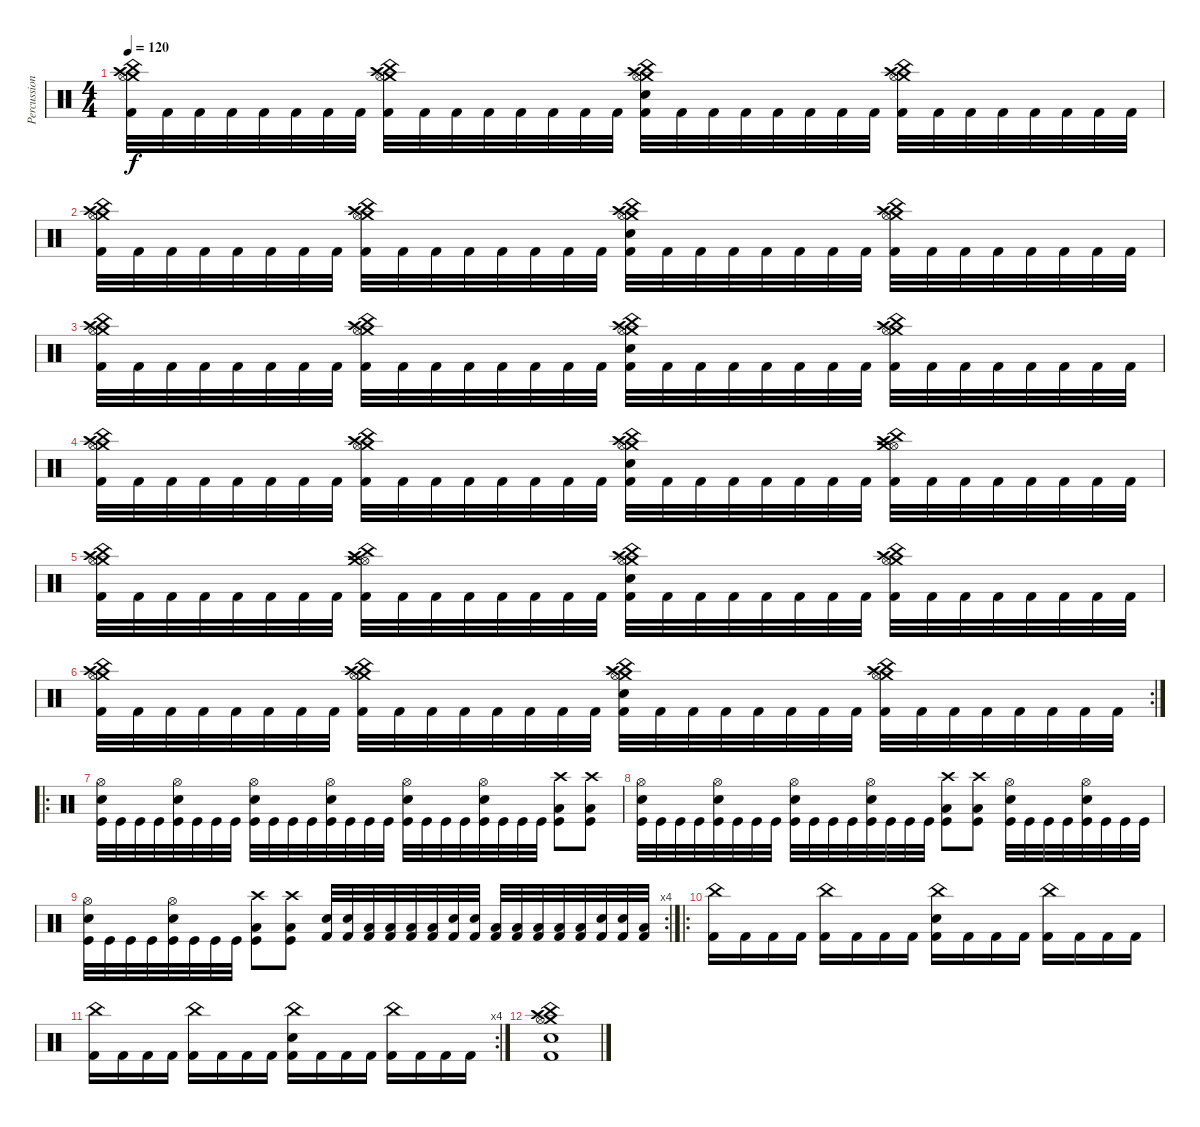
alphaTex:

\track ("Percussions" "Percussion") {instrument percussion}
\staff {score}
\articulation defaults
\ts (4 4)
\tempo 120
\clef neutral
\ks c
("Crash medium (hit)" "China (hit)" "Crash high (hit)" "Hi-Hat (open)" "Kick (hit) 2").32{dy f} "Kick (hit) 2".32 "Kick (hit) 2".32 "Kick (hit) 2".32 "Kick (hit) 2".32 "Kick (hit) 2".32 "Kick (hit) 2".32 "Kick (hit) 2".32 ("Crash medium (hit)" "China (hit)" "Crash high (hit)" "Hi-Hat (open)" "Kick (hit) 2").32 "Kick (hit) 2".32 "Kick (hit) 2".32 "Kick (hit) 2".32 "Kick (hit) 2".32 "Kick (hit) 2".32 "Kick (hit) 2".32 "Kick (hit) 2".32 ("Crash medium (hit)" "China (hit)" "Crash high (hit)" "Hi-Hat (open)" "Electric Snare (hit)" "Kick (hit) 2").32 "Kick (hit) 2".32 "Kick (hit) 2".32 "Kick (hit) 2".32 "Kick (hit) 2".32 "Kick (hit) 2".32 "Kick (hit) 2".32 "Kick (hit) 2".32 ("Crash medium (hit)" "China (hit)" "Hi-Hat (open)" "Crash high (hit)" "Kick (hit) 2").32 "Kick (hit) 2".32 "Kick (hit) 2".32 "Kick (hit) 2".32 "Kick (hit) 2".32 "Kick (hit) 2".32 "Kick (hit) 2".32 "Kick (hit) 2".32 |
("Crash medium (hit)" "China (hit)" "Crash high (hit)" "Hi-Hat (open)" "Kick (hit) 2").32 "Kick (hit) 2".32 "Kick (hit) 2".32 "Kick (hit) 2".32 "Kick (hit) 2".32 "Kick (hit) 2".32 "Kick (hit) 2".32 "Kick (hit) 2".32 ("China (hit)" "Crash medium (hit)" "Crash high (hit)" "Hi-Hat (open)" "Kick (hit) 2").32 "Kick (hit) 2".32 "Kick (hit) 2".32 "Kick (hit) 2".32 "Kick (hit) 2".32 "Kick (hit) 2".32 "Kick (hit) 2".32 "Kick (hit) 2".32 ("China (hit)" "Crash medium (hit)" "Crash high (hit)" "Hi-Hat (open)" "Electric Snare (hit)" "Kick (hit) 2").32 "Kick (hit) 2".32 "Kick (hit) 2".32 "Kick (hit) 2".32 "Kick (hit) 2".32 "Kick (hit) 2".32 "Kick (hit) 2".32 "Kick (hit) 2".32 ("China (hit)" "Crash medium (hit)" "Crash high (hit)" "Hi-Hat (open)" "Kick (hit) 2").32 "Kick (hit) 2".32 "Kick (hit) 2".32 "Kick (hit) 2".32 "Kick (hit) 2".32 "Kick (hit) 2".32 "Kick (hit) 2".32 "Kick (hit) 2".32 |
("Crash medium (hit)" "China (hit)" "Crash high (hit)" "Hi-Hat (open)" "Kick (hit) 2").32 "Kick (hit) 2".32 "Kick (hit) 2".32 "Kick (hit) 2".32 "Kick (hit) 2".32 "Kick (hit) 2".32 "Kick (hit) 2".32 "Kick (hit) 2".32 ("Crash medium (hit)" "Crash high (hit)" "China (hit)" "Hi-Hat (open)" "Kick (hit) 2").32 "Kick (hit) 2".32 "Kick (hit) 2".32 "Kick (hit) 2".32 "Kick (hit) 2".32 "Kick (hit) 2".32 "Kick (hit) 2".32 "Kick (hit) 2".32 ("Crash medium (hit)" "Crash high (hit)" "China (hit)" "Hi-Hat (open)" "Electric Snare (hit)" "Kick (hit) 2").32 "Kick (hit) 2".32 "Kick (hit) 2".32 "Kick (hit) 2".32 "Kick (hit) 2".32 "Kick (hit) 2".32 "Kick (hit) 2".32 "Kick (hit) 2".32 ("China (hit)" "Crash medium (hit)" "Crash high (hit)" "Hi-Hat (open)" "Kick (hit) 2").32 "Kick (hit) 2".32 "Kick (hit) 2".32 "Kick (hit) 2".32 "Kick (hit) 2".32 "Kick (hit) 2".32 "Kick (hit) 2".32 "Kick (hit) 2".32 |
("China (hit)" "Crash medium (hit)" "Hi-Hat (open)" "Crash high (hit)" "Kick (hit) 2").32 "Kick (hit) 2".32 "Kick (hit) 2".32 "Kick (hit) 2".32 "Kick (hit) 2".32 "Kick (hit) 2".32 "Kick (hit) 2".32 "Kick (hit) 2".32 ("Crash medium (hit)" "Crash high (hit)" "Hi-Hat (open)" "China (hit)" "Kick (hit) 2").32 "Kick (hit) 2".32 "Kick (hit) 2".32 "Kick (hit) 2".32 "Kick (hit) 2".32 "Kick (hit) 2".32 "Kick (hit) 2".32 "Kick (hit) 2".32 ("China (hit)" "Crash medium (hit)" "Crash high (hit)" "Hi-Hat (open)" "Electric Snare (hit)" "Kick (hit) 2").32 "Kick (hit) 2".32 "Kick (hit) 2".32 "Kick (hit) 2".32 "Kick (hit) 2".32 "Kick (hit) 2".32 "Kick (hit) 2".32 "Kick (hit) 2".32 ("Hi-Hat (open)" "Crash medium (hit)" "China (hit)" "Crash high (hit)" "Kick (hit) 2").32 "Kick (hit) 2".32 "Kick (hit) 2".32 "Kick (hit) 2".32 "Kick (hit) 2".32 "Kick (hit) 2".32 "Kick (hit) 2".32 "Kick (hit) 2".32 |
("China (hit)" "Crash medium (hit)" "Crash high (hit)" "Hi-Hat (open)" "Kick (hit) 2").32 "Kick (hit) 2".32 "Kick (hit) 2".32 "Kick (hit) 2".32 "Kick (hit) 2".32 "Kick (hit) 2".32 "Kick (hit) 2".32 "Kick (hit) 2".32 ("Hi-Hat (open)" "Crash medium (hit)" "China (hit)" "Crash high (hit)" "Kick (hit) 2").32 "Kick (hit) 2".32 "Kick (hit) 2".32 "Kick (hit) 2".32 "Kick (hit) 2".32 "Kick (hit) 2".32 "Kick (hit) 2".32 "Kick (hit) 2".32 ("Crash high (hit)" "Crash medium (hit)" "China (hit)" "Hi-Hat (open)" "Electric Snare (hit)" "Kick (hit) 2").32 "Kick (hit) 2".32 "Kick (hit) 2".32 "Kick (hit) 2".32 "Kick (hit) 2".32 "Kick (hit) 2".32 "Kick (hit) 2".32 "Kick (hit) 2".32 ("Crash medium (hit)" "Crash high (hit)" "China (hit)" "Hi-Hat (open)" "Kick (hit) 2").32 "Kick (hit) 2".32 "Kick (hit) 2".32 "Kick (hit) 2".32 "Kick (hit) 2".32 "Kick (hit) 2".32 "Kick (hit) 2".32 "Kick (hit) 2".32 |
\rc 2
("Crash high (hit)" "Crash medium (hit)" "China (hit)" "Hi-Hat (open)" "Kick (hit) 2").32 "Kick (hit) 2".32 "Kick (hit) 2".32 "Kick (hit) 2".32 "Kick (hit) 2".32 "Kick (hit) 2".32 "Kick (hit) 2".32 "Kick (hit) 2".32 ("Crash medium (hit)" "Crash high (hit)" "China (hit)" "Hi-Hat (open)" "Kick (hit) 2").32 "Kick (hit) 2".32 "Kick (hit) 2".32 "Kick (hit) 2".32 "Kick (hit) 2".32 "Kick (hit) 2".32 "Kick (hit) 2".32 "Kick (hit) 2".32 ("Crash medium (hit)" "Crash high (hit)" "China (hit)" "Hi-Hat (open)" "Electric Snare (hit)" "Kick (hit) 2").32 "Kick (hit) 2".32 "Kick (hit) 2".32 "Kick (hit) 2".32 "Kick (hit) 2".32 "Kick (hit) 2".32 "Kick (hit) 2".32 "Kick (hit) 2".32 ("Crash medium (hit)" "Crash high (hit)" "China (hit)" "Hi-Hat (open)" "Kick (hit) 2").32 "Kick (hit) 2".32 "Kick (hit) 2".32 "Kick (hit) 2".32 "Kick (hit) 2".32 "Kick (hit) 2".32 "Kick (hit) 2".32 "Kick (hit) 2".32 |
\ro
("Hi-Hat (open)" "Electric Snare (hit)" "Kick (hit)").32 "Kick (hit)".32 "Kick (hit)".32 "Kick (hit)".32 ("Hi-Hat (open)" "Electric Snare (hit)" "Kick (hit)").32 "Kick (hit)".32 "Kick (hit)".32 "Kick (hit)".32 ("Hi-Hat (open)" "Electric Snare (hit)" "Kick (hit)").32 "Kick (hit)".32 "Kick (hit)".32 "Kick (hit)".32 ("Hi-Hat (open)" "Electric Snare (hit)" "Kick (hit)").32 "Kick (hit)".32 "Kick (hit)".32 "Kick (hit)".32 ("Hi-Hat (open)" "Electric Snare (hit)" "Kick (hit)").32 "Kick (hit)".32 "Kick (hit)".32 "Kick (hit)".32 ("Hi-Hat (open)" "Electric Snare (hit)" "Kick (hit)").32 "Kick (hit)".32 "Kick (hit)".32 "Kick (hit)".32 ("Crash high (hit)" "Low Floor Tom (hit)" "Kick (hit)").8 ("Crash high (hit)" "Low Floor Tom (hit)" "Kick (hit)").8 |
("Hi-Hat (open)" "Electric Snare (hit)" "Kick (hit)").32 "Kick (hit)".32 "Kick (hit)".32 "Kick (hit)".32 ("Hi-Hat (open)" "Electric Snare (hit)" "Kick (hit)").32 "Kick (hit)".32 "Kick (hit)".32 "Kick (hit)".32 ("Hi-Hat (open)" "Electric Snare (hit)" "Kick (hit)").32 "Kick (hit)".32 "Kick (hit)".32 "Kick (hit)".32 ("Hi-Hat (open)" "Electric Snare (hit)" "Kick (hit)").32 "Kick (hit)".32 "Kick (hit)".32 "Kick (hit)".32 ("Crash high (hit)" "Low Floor Tom (hit)" "Kick (hit)").8 ("Crash high (hit)" "Low Floor Tom (hit)" "Kick (hit)").8 ("Hi-Hat (open)" "Electric Snare (hit)" "Kick (hit)").32 "Kick (hit)".32 "Kick (hit)".32 "Kick (hit)".32 ("Hi-Hat (open)" "Electric Snare (hit)" "Kick (hit)").32 "Kick (hit)".32 "Kick (hit)".32 "Kick (hit)".32 |
\rc 4
("Hi-Hat (open)" "Electric Snare (hit)" "Kick (hit)").32 "Kick (hit)".32 "Kick (hit)".32 "Kick (hit)".32 ("Hi-Hat (open)" "Electric Snare (hit)" "Kick (hit)").32 "Kick (hit)".32 "Kick (hit)".32 "Kick (hit)".32 ("Crash high (hit)" "Low Floor Tom (hit)" "Kick (hit)").8 ("Crash high (hit)" "Low Floor Tom (hit)" "Kick (hit)").8 ("Electric Snare (hit)" "Kick (hit) 2").32 ("Electric Snare (hit)" "Kick (hit) 2").32 ("Low Floor Tom (hit)" "Kick (hit) 2").32 ("Low Tom (hit)" "Kick (hit) 2").32 ("Low Tom (hit)" "Kick (hit) 2").32 ("Low Tom (hit)" "Kick (hit) 2").32 ("Electric Snare (hit)" "Kick (hit) 2").32 ("Electric Snare (hit)" "Kick (hit) 2").32 ("Low Floor Tom (hit)" "Kick (hit) 2").32 ("Low Tom (hit)" "Kick (hit) 2").32 ("Low Tom (hit)" "Kick (hit) 2").32 ("Low Tom (hit)" "Kick (hit) 2").32 ("Low Tom (hit)" "Kick (hit) 2").32 ("Electric Snare (hit)" "Kick (hit) 2").32 ("Electric Snare (hit)" "Kick (hit) 2").32 ("Low Floor Tom (hit)" "Kick (hit) 2").32 |
\ro
("China (hit)" "Kick (hit) 2").16 "Kick (hit) 2".16 "Kick (hit) 2".16 "Kick (hit) 2".16 ("China (hit)" "Kick (hit) 2").16 "Kick (hit) 2".16 "Kick (hit) 2".16 "Kick (hit) 2".16 ("China (hit)" "Electric Snare (hit)" "Kick (hit) 2").16 "Kick (hit) 2".16 "Kick (hit) 2".16 "Kick (hit) 2".16 ("China (hit)" "Kick (hit) 2").16 "Kick (hit) 2".16 "Kick (hit) 2".16 "Kick (hit) 2".16 |
\rc 4
("China (hit)" "Kick (hit) 2").16 "Kick (hit) 2".16 "Kick (hit) 2".16 "Kick (hit) 2".16 ("China (hit)" "Kick (hit) 2").16 "Kick (hit) 2".16 "Kick (hit) 2".16 "Kick (hit) 2".16 ("China (hit)" "Electric Snare (hit)" "Kick (hit) 2").16 "Kick (hit) 2".16 "Kick (hit) 2".16 "Kick (hit) 2".16 ("China (hit)" "Kick (hit) 2").16 "Kick (hit) 2".16 "Kick (hit) 2".16 "Kick (hit) 2".16 |
("China (hit)" "Crash medium (hit)" "Crash high (hit)" "Hi-Hat (open)" "Electric Snare (hit)" "Kick (hit) 2").1
